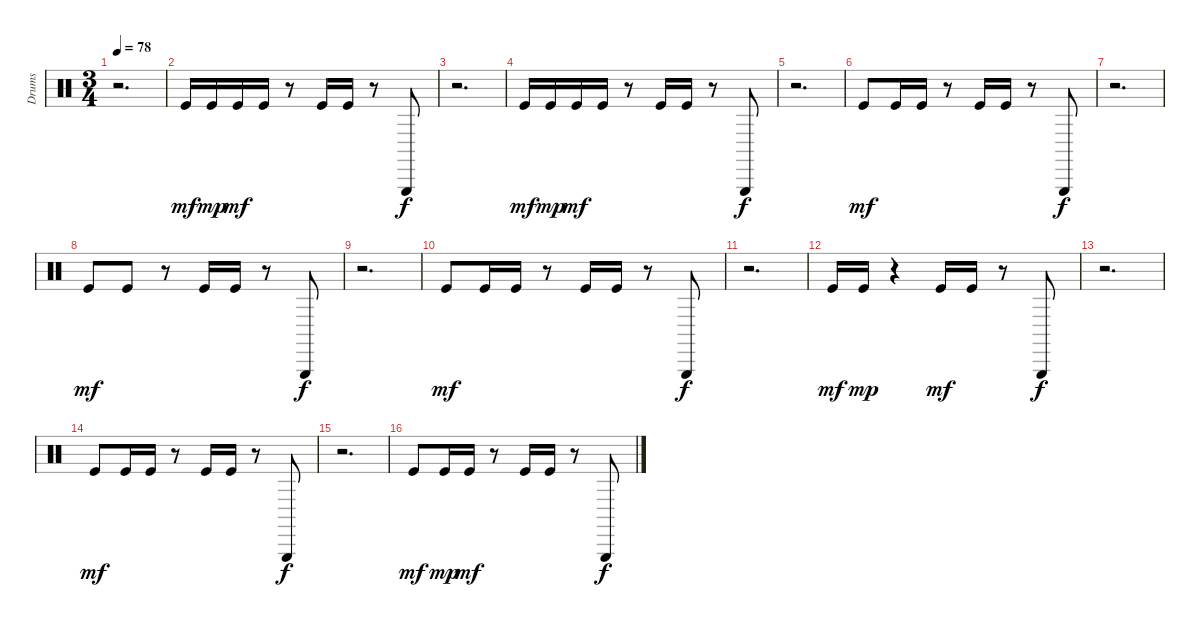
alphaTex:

\track ("Drums" "Drums") {instrument percussion}
\staff {score}
\articulation defaults
\ts (3 4)
\tempo 78
\clef neutral
\ks c
r.2{d dy f} |
"Kick (hit)".16{dy mf} "Kick (hit)".16{dy mp} "Kick (hit)".16{dy mf} "Kick (hit)".16 r.8 "Kick (hit)".16 "Kick (hit)".16 r.8 "Triangle (hit)".8{dy f} |
r.2{d} |
"Kick (hit)".16{dy mf} "Kick (hit)".16{dy mp} "Kick (hit)".16{dy mf} "Kick (hit)".16 r.8 "Kick (hit)".16 "Kick (hit)".16 r.8 "Triangle (hit)".8{dy f} |
r.2{d} |
"Kick (hit)".8{dy mf} "Kick (hit)".16 "Kick (hit)".16 r.8 "Kick (hit)".16 "Kick (hit)".16 r.8 "Triangle (hit)".8{dy f} |
r.2{d} |
"Kick (hit)".8{dy mf} "Kick (hit)".8 r.8 "Kick (hit)".16 "Kick (hit)".16 r.8 "Triangle (hit)".8{dy f} |
r.2{d} |
"Kick (hit)".8{dy mf} "Kick (hit)".16 "Kick (hit)".16 r.8 "Kick (hit)".16 "Kick (hit)".16 r.8 "Triangle (hit)".8{dy f} |
r.2{d} |
"Kick (hit)".16{dy mf} "Kick (hit)".16{dy mp} r.4 "Kick (hit)".16{dy mf} "Kick (hit)".16 r.8 "Triangle (hit)".8{dy f} |
r.2{d} |
"Kick (hit)".8{dy mf} "Kick (hit)".16 "Kick (hit)".16 r.8 "Kick (hit)".16 "Kick (hit)".16 r.8 "Triangle (hit)".8{dy f} |
r.2{d} |
"Kick (hit)".8{dy mf} "Kick (hit)".16{dy mp} "Kick (hit)".16{dy mf} r.8 "Kick (hit)".16 "Kick (hit)".16 r.8 "Triangle (hit)".8{dy f}
